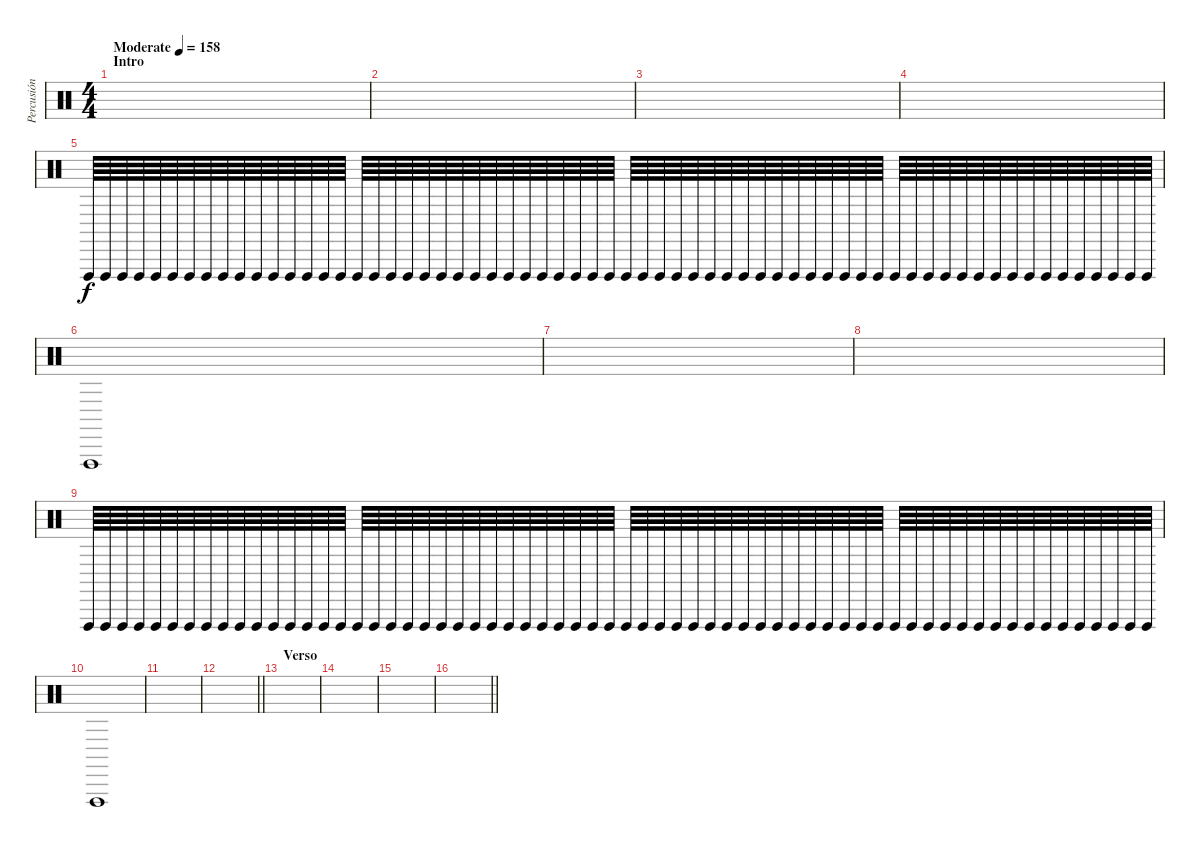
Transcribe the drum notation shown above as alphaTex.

\track ("Percusión" "Percusión") {instrument percussion}
\staff {score}
\articulation defaults
\ts (4 4)
\section ("" "Intro")
\tempo (158 "Moderate")
\clef neutral
\ks c
|
|
|
|
"Vibraslap (hit)".64 "Vibraslap (hit)".64 "Vibraslap (hit)".64 "Vibraslap (hit)".64 "Vibraslap (hit)".64 "Vibraslap (hit)".64 "Vibraslap (hit)".64 "Vibraslap (hit)".64 "Vibraslap (hit)".64 "Vibraslap (hit)".64 "Vibraslap (hit)".64 "Vibraslap (hit)".64 "Vibraslap (hit)".64 "Vibraslap (hit)".64 "Vibraslap (hit)".64 "Vibraslap (hit)".64 "Vibraslap (hit)".64 "Vibraslap (hit)".64 "Vibraslap (hit)".64 "Vibraslap (hit)".64 "Vibraslap (hit)".64 "Vibraslap (hit)".64 "Vibraslap (hit)".64 "Vibraslap (hit)".64 "Vibraslap (hit)".64 "Vibraslap (hit)".64 "Vibraslap (hit)".64 "Vibraslap (hit)".64 "Vibraslap (hit)".64 "Vibraslap (hit)".64 "Vibraslap (hit)".64 "Vibraslap (hit)".64 "Vibraslap (hit)".64 "Vibraslap (hit)".64 "Vibraslap (hit)".64 "Vibraslap (hit)".64 "Vibraslap (hit)".64 "Vibraslap (hit)".64 "Vibraslap (hit)".64 "Vibraslap (hit)".64 "Vibraslap (hit)".64 "Vibraslap (hit)".64 "Vibraslap (hit)".64 "Vibraslap (hit)".64 "Vibraslap (hit)".64 "Vibraslap (hit)".64 "Vibraslap (hit)".64 "Vibraslap (hit)".64 "Vibraslap (hit)".64 "Vibraslap (hit)".64 "Vibraslap (hit)".64 "Vibraslap (hit)".64 "Vibraslap (hit)".64 "Vibraslap (hit)".64 "Vibraslap (hit)".64 "Vibraslap (hit)".64 "Vibraslap (hit)".64 "Vibraslap (hit)".64 "Vibraslap (hit)".64 "Vibraslap (hit)".64 "Vibraslap (hit)".64 "Vibraslap (hit)".64 "Vibraslap (hit)".64 "Vibraslap (hit)".64 |
"Vibraslap (hit)".1 |
|
|
"Vibraslap (hit)".64 "Vibraslap (hit)".64 "Vibraslap (hit)".64 "Vibraslap (hit)".64 "Vibraslap (hit)".64 "Vibraslap (hit)".64 "Vibraslap (hit)".64 "Vibraslap (hit)".64 "Vibraslap (hit)".64 "Vibraslap (hit)".64 "Vibraslap (hit)".64 "Vibraslap (hit)".64 "Vibraslap (hit)".64 "Vibraslap (hit)".64 "Vibraslap (hit)".64 "Vibraslap (hit)".64 "Vibraslap (hit)".64 "Vibraslap (hit)".64 "Vibraslap (hit)".64 "Vibraslap (hit)".64 "Vibraslap (hit)".64 "Vibraslap (hit)".64 "Vibraslap (hit)".64 "Vibraslap (hit)".64 "Vibraslap (hit)".64 "Vibraslap (hit)".64 "Vibraslap (hit)".64 "Vibraslap (hit)".64 "Vibraslap (hit)".64 "Vibraslap (hit)".64 "Vibraslap (hit)".64 "Vibraslap (hit)".64 "Vibraslap (hit)".64 "Vibraslap (hit)".64 "Vibraslap (hit)".64 "Vibraslap (hit)".64 "Vibraslap (hit)".64 "Vibraslap (hit)".64 "Vibraslap (hit)".64 "Vibraslap (hit)".64 "Vibraslap (hit)".64 "Vibraslap (hit)".64 "Vibraslap (hit)".64 "Vibraslap (hit)".64 "Vibraslap (hit)".64 "Vibraslap (hit)".64 "Vibraslap (hit)".64 "Vibraslap (hit)".64 "Vibraslap (hit)".64 "Vibraslap (hit)".64 "Vibraslap (hit)".64 "Vibraslap (hit)".64 "Vibraslap (hit)".64 "Vibraslap (hit)".64 "Vibraslap (hit)".64 "Vibraslap (hit)".64 "Vibraslap (hit)".64 "Vibraslap (hit)".64 "Vibraslap (hit)".64 "Vibraslap (hit)".64 "Vibraslap (hit)".64 "Vibraslap (hit)".64 "Vibraslap (hit)".64 "Vibraslap (hit)".64 |
"Vibraslap (hit)".1 |
|
\barLineRight lightlight
|
\section ("" "Verso")
|
|
|
\barLineRight lightlight
